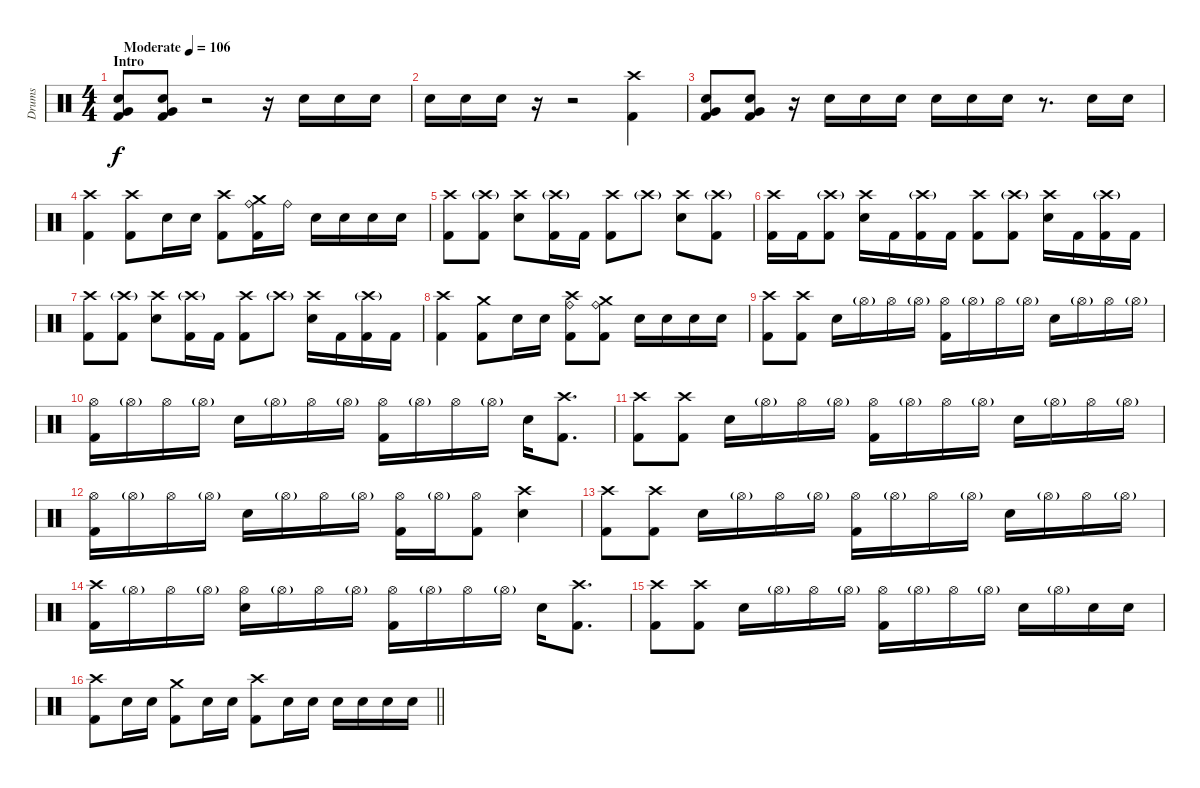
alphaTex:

\track ("Drums" "Drums") {instrument percussion}
\staff {score}
\articulation defaults
\ts (4 4)
\section ("" "Intro")
\tempo (106 "Moderate")
\clef neutral
\ks c
("Very Low Tom (hit)" "Electric Snare (hit)" "Kick (hit) 2").8{dy f} ("Very Low Tom (hit)" "Electric Snare (hit)" "Kick (hit) 2").8 r.2 r.16 "Electric Snare (hit)".16 "Electric Snare (hit)".16 "Electric Snare (hit)".16 |
"Electric Snare (hit)".16 "Electric Snare (hit)".16 "Electric Snare (hit)".16 r.16 r.2 ("Kick (hit) 2" "Crash high (hit)").4 |
("Very Low Tom (hit)" "Electric Snare (hit)" "Kick (hit) 2").8 ("Very Low Tom (hit)" "Electric Snare (hit)" "Kick (hit) 2").8 r.16 "Electric Snare (hit)".16 "Electric Snare (hit)".16 "Electric Snare (hit)".16 "Electric Snare (hit)".16 "Electric Snare (hit)".16 "Electric Snare (hit)".16 r.8{d} "Electric Snare (hit)".16 "Electric Snare (hit)".16 |
("Crash high (hit)" "Kick (hit) 2").4 ("Crash high (hit)" "Kick (hit) 2").8 "Electric Snare (hit)".16 "Electric Snare (hit)".16 ("Crash high (hit)" "Kick (hit) 2").8 ("Crash medium (hit)" "Ride (bell)" "Kick (hit) 2").16 "Ride (bell)".16 "Electric Snare (hit)".16 "Electric Snare (hit)".16 "Electric Snare (hit)".16 "Electric Snare (hit)".16 |
("Crash high (hit)" "Kick (hit) 2").8 ("Crash high (hit)"{g} "Kick (hit) 2").8 ("Crash high (hit)" "Electric Snare (hit)").8 ("Crash high (hit)"{g} "Kick (hit) 2").16 "Kick (hit) 2".16 ("Crash high (hit)" "Kick (hit) 2").8 "Crash high (hit)"{g}.8 ("Crash high (hit)" "Electric Snare (hit)").8 ("Crash high (hit)"{g} "Kick (hit) 2").8 |
("Crash high (hit)" "Kick (hit) 2").16 "Kick (hit) 2".16 ("Crash high (hit)"{g} "Kick (hit) 2").8 ("Crash high (hit)" "Electric Snare (hit)").16 "Kick (hit) 2".16 ("Crash high (hit)"{g} "Kick (hit) 2").16 "Kick (hit) 2".16 ("Crash high (hit)" "Kick (hit) 2").8 ("Crash high (hit)"{g} "Kick (hit) 2").8 ("Crash high (hit)" "Electric Snare (hit)").16 "Kick (hit) 2".16 ("Crash high (hit)"{g} "Kick (hit) 2").16 "Kick (hit) 2".16 |
("Crash high (hit)" "Kick (hit) 2").8 ("Crash high (hit)"{g} "Kick (hit) 2").8 ("Crash high (hit)" "Electric Snare (hit)").8 ("Crash high (hit)"{g} "Kick (hit) 2").16 "Kick (hit) 2".16 ("Crash high (hit)" "Kick (hit) 2").8 "Crash high (hit)"{g}.8 ("Crash high (hit)" "Electric Snare (hit)").16 "Kick (hit) 2".16 ("Crash high (hit)"{g} "Kick (hit) 2").16 "Kick (hit) 2".16 |
("Crash high (hit)" "Kick (hit) 2").4 ("Crash medium (hit)" "Kick (hit) 2").8 "Electric Snare (hit)".16 "Electric Snare (hit)".16 ("Crash high (hit)" "Ride (bell)" "Kick (hit) 2").8 ("Crash medium (hit)" "Ride (bell)" "Kick (hit) 2").8 "Electric Snare (hit)".16 "Electric Snare (hit)".16 "Electric Snare (hit)".16 "Electric Snare (hit)".16 |
("Crash high (hit)" "Kick (hit) 2").8 ("Crash high (hit)" "Kick (hit) 2").8 "Electric Snare (hit)".16 "Hi-Hat (open)"{g}.16 "Hi-Hat (open)".16 "Hi-Hat (open)"{g}.16 ("Hi-Hat (open)" "Kick (hit) 2").16 "Hi-Hat (open)"{g}.16 "Hi-Hat (open)".16 "Hi-Hat (open)"{g}.16 "Electric Snare (hit)".16 "Hi-Hat (open)"{g}.16 "Hi-Hat (open)".16 "Hi-Hat (open)"{g}.16 |
("Hi-Hat (open)" "Kick (hit) 2").16 "Hi-Hat (open)"{g}.16 "Hi-Hat (open)".16 "Hi-Hat (open)"{g}.16 "Electric Snare (hit)".16 "Hi-Hat (open)"{g}.16 "Hi-Hat (open)".16 "Hi-Hat (open)"{g}.16 ("Hi-Hat (open)" "Kick (hit) 2").16 "Hi-Hat (open)"{g}.16 "Hi-Hat (open)".16 "Hi-Hat (open)"{g}.16 "Electric Snare (hit)".16 ("Crash high (hit)" "Kick (hit) 2").8{d} |
("Crash high (hit)" "Kick (hit) 2").8 ("Crash high (hit)" "Kick (hit) 2").8 "Electric Snare (hit)".16 "Hi-Hat (open)"{g}.16 "Hi-Hat (open)".16 "Hi-Hat (open)"{g}.16 ("Hi-Hat (open)" "Kick (hit) 2").16 "Hi-Hat (open)"{g}.16 "Hi-Hat (open)".16 "Hi-Hat (open)"{g}.16 "Electric Snare (hit)".16 "Hi-Hat (open)"{g}.16 "Hi-Hat (open)".16 "Hi-Hat (open)"{g}.16 |
("Hi-Hat (open)" "Kick (hit) 2").16 "Hi-Hat (open)"{g}.16 "Hi-Hat (open)".16 "Hi-Hat (open)"{g}.16 "Electric Snare (hit)".16 "Hi-Hat (open)"{g}.16 "Hi-Hat (open)".16 "Hi-Hat (open)"{g}.16 ("Hi-Hat (open)" "Kick (hit) 2").16 "Hi-Hat (open)"{g}.16 ("Hi-Hat (open)" "Kick (hit) 2").8 ("Crash high (hit)" "Electric Snare (hit)").4 |
("Crash high (hit)" "Kick (hit) 2").8 ("Crash high (hit)" "Kick (hit) 2").8 "Electric Snare (hit)".16 "Hi-Hat (open)"{g}.16 "Hi-Hat (open)".16 "Hi-Hat (open)"{g}.16 ("Hi-Hat (open)" "Kick (hit) 2").16 "Hi-Hat (open)"{g}.16 "Hi-Hat (open)".16 "Hi-Hat (open)"{g}.16 "Electric Snare (hit)".16 "Hi-Hat (open)"{g}.16 "Hi-Hat (open)".16 "Hi-Hat (open)"{g}.16 |
("Crash high (hit)" "Kick (hit) 2").16 "Hi-Hat (open)"{g}.16 "Hi-Hat (open)".16 "Hi-Hat (open)"{g}.16 ("Hi-Hat (open)" "Electric Snare (hit)").16 "Hi-Hat (open)"{g}.16 "Hi-Hat (open)".16 "Hi-Hat (open)"{g}.16 ("Hi-Hat (open)" "Kick (hit) 2").16 "Hi-Hat (open)"{g}.16 "Hi-Hat (open)".16 "Hi-Hat (open)"{g}.16 "Electric Snare (hit)".16 ("Crash high (hit)" "Kick (hit) 2").8{d} |
("Crash high (hit)" "Kick (hit) 2").8 ("Crash high (hit)" "Kick (hit) 2").8 "Electric Snare (hit)".16 "Hi-Hat (open)"{g}.16 "Hi-Hat (open)".16 "Hi-Hat (open)"{g}.16 ("Hi-Hat (open)" "Kick (hit) 2").16 "Hi-Hat (open)"{g}.16 "Hi-Hat (open)".16 "Hi-Hat (open)"{g}.16 "Electric Snare (hit)".16 "Hi-Hat (open)"{g}.16 "Electric Snare (hit)".16 "Electric Snare (hit)".16 |
\barLineRight lightlight
("Crash high (hit)" "Kick (hit) 2").8 "Electric Snare (hit)".16 "Electric Snare (hit)".16 ("Crash medium (hit)" "Kick (hit) 2").8 "Electric Snare (hit)".16 "Electric Snare (hit)".16 ("Crash high (hit)" "Kick (hit) 2").8 "Electric Snare (hit)".16 "Electric Snare (hit)".16 "Electric Snare (hit)".16 "Electric Snare (hit)".16 "Electric Snare (hit)".16 "Electric Snare (hit)".16
